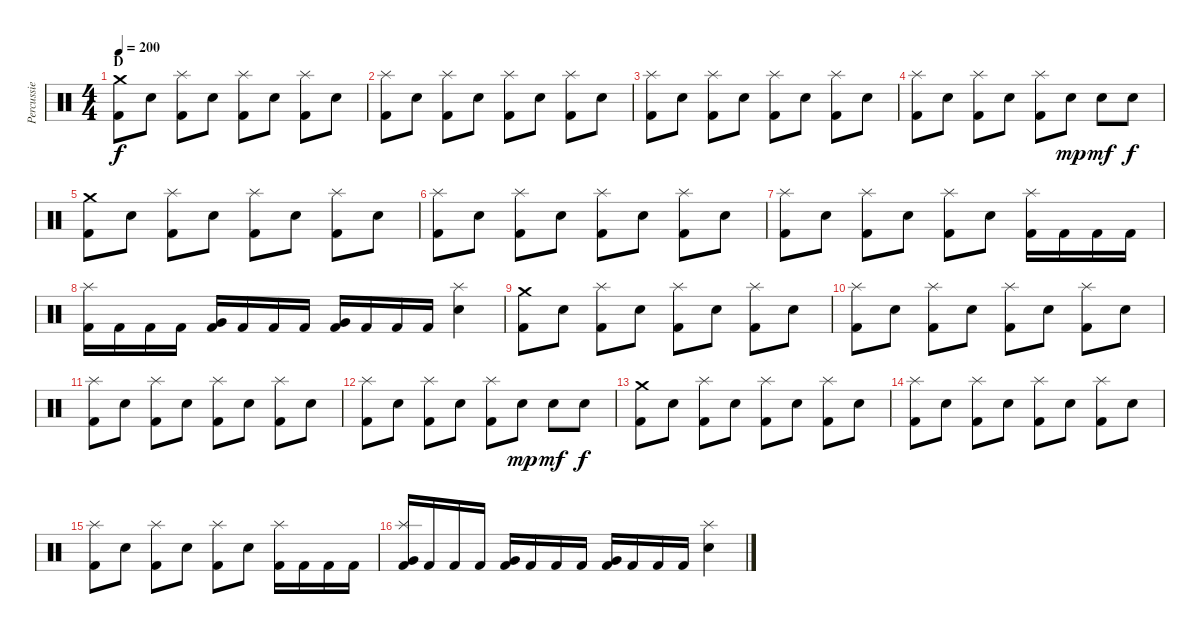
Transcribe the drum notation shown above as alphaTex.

\track ("Percussie" "Percussie") {instrument percussion}
\staff {score}
\articulation defaults
\ts (4 4)
\section ("" "D")
\tempo 200
\clef neutral
\ks c
("Crash medium (hit)" "Kick (hit) 2").8{dy f} "Electric Snare (hit)".8 ("Splash (hit)" "Kick (hit) 2").8 "Electric Snare (hit)".8 ("Splash (hit)" "Kick (hit) 2").8 "Electric Snare (hit)".8 ("Splash (hit)" "Kick (hit) 2").8 "Electric Snare (hit)".8 |
("Splash (hit)" "Kick (hit) 2").8 "Electric Snare (hit)".8 ("Splash (hit)" "Kick (hit) 2").8 "Electric Snare (hit)".8 ("Splash (hit)" "Kick (hit) 2").8 "Electric Snare (hit)".8 ("Splash (hit)" "Kick (hit) 2").8 "Electric Snare (hit)".8 |
("Splash (hit)" "Kick (hit) 2").8 "Electric Snare (hit)".8 ("Splash (hit)" "Kick (hit) 2").8 "Electric Snare (hit)".8 ("Splash (hit)" "Kick (hit) 2").8 "Electric Snare (hit)".8 ("Splash (hit)" "Kick (hit) 2").8 "Electric Snare (hit)".8 |
("Splash (hit)" "Kick (hit) 2").8 "Electric Snare (hit)".8 ("Splash (hit)" "Kick (hit) 2").8 "Electric Snare (hit)".8 ("Splash (hit)" "Kick (hit) 2").8 "Electric Snare (hit)".8{dy mp} "Electric Snare (hit)".8{dy mf} "Electric Snare (hit)".8{dy f} |
("Crash medium (hit)" "Kick (hit) 2").8 "Electric Snare (hit)".8 ("Splash (hit)" "Kick (hit) 2").8 "Electric Snare (hit)".8 ("Splash (hit)" "Kick (hit) 2").8 "Electric Snare (hit)".8 ("Splash (hit)" "Kick (hit) 2").8 "Electric Snare (hit)".8 |
("Splash (hit)" "Kick (hit) 2").8 "Electric Snare (hit)".8 ("Splash (hit)" "Kick (hit) 2").8 "Electric Snare (hit)".8 ("Splash (hit)" "Kick (hit) 2").8 "Electric Snare (hit)".8 ("Splash (hit)" "Kick (hit) 2").8 "Electric Snare (hit)".8 |
("Splash (hit)" "Kick (hit) 2").8 "Electric Snare (hit)".8 ("Splash (hit)" "Kick (hit) 2").8 "Electric Snare (hit)".8 ("Splash (hit)" "Kick (hit) 2").8 "Electric Snare (hit)".8 ("Splash (hit)" "Kick (hit) 2").16 "Kick (hit) 2".16 "Kick (hit) 2".16 "Kick (hit) 2".16 |
("Splash (hit)" "Kick (hit) 2").16 "Kick (hit) 2".16 "Kick (hit) 2".16 "Kick (hit) 2".16 ("Very Low Tom (hit)" "Kick (hit) 2").16 "Kick (hit) 2".16 "Kick (hit) 2".16 "Kick (hit) 2".16 ("Very Low Tom (hit)" "Kick (hit) 2").16 "Kick (hit) 2".16 "Kick (hit) 2".16 "Kick (hit) 2".16 ("Splash (hit)" "Electric Snare (hit)").4 |
("Crash medium (hit)" "Kick (hit) 2").8 "Electric Snare (hit)".8 ("Splash (hit)" "Kick (hit) 2").8 "Electric Snare (hit)".8 ("Splash (hit)" "Kick (hit) 2").8 "Electric Snare (hit)".8 ("Splash (hit)" "Kick (hit) 2").8 "Electric Snare (hit)".8 |
("Splash (hit)" "Kick (hit) 2").8 "Electric Snare (hit)".8 ("Splash (hit)" "Kick (hit) 2").8 "Electric Snare (hit)".8 ("Splash (hit)" "Kick (hit) 2").8 "Electric Snare (hit)".8 ("Splash (hit)" "Kick (hit) 2").8 "Electric Snare (hit)".8 |
("Splash (hit)" "Kick (hit) 2").8 "Electric Snare (hit)".8 ("Splash (hit)" "Kick (hit) 2").8 "Electric Snare (hit)".8 ("Splash (hit)" "Kick (hit) 2").8 "Electric Snare (hit)".8 ("Splash (hit)" "Kick (hit) 2").8 "Electric Snare (hit)".8 |
("Splash (hit)" "Kick (hit) 2").8 "Electric Snare (hit)".8 ("Splash (hit)" "Kick (hit) 2").8 "Electric Snare (hit)".8 ("Splash (hit)" "Kick (hit) 2").8 "Electric Snare (hit)".8{dy mp} "Electric Snare (hit)".8{dy mf} "Electric Snare (hit)".8{dy f} |
("Crash medium (hit)" "Kick (hit) 2").8 "Electric Snare (hit)".8 ("Splash (hit)" "Kick (hit) 2").8 "Electric Snare (hit)".8 ("Splash (hit)" "Kick (hit) 2").8 "Electric Snare (hit)".8 ("Splash (hit)" "Kick (hit) 2").8 "Electric Snare (hit)".8 |
("Splash (hit)" "Kick (hit) 2").8 "Electric Snare (hit)".8 ("Splash (hit)" "Kick (hit) 2").8 "Electric Snare (hit)".8 ("Splash (hit)" "Kick (hit) 2").8 "Electric Snare (hit)".8 ("Splash (hit)" "Kick (hit) 2").8 "Electric Snare (hit)".8 |
("Splash (hit)" "Kick (hit) 2").8 "Electric Snare (hit)".8 ("Splash (hit)" "Kick (hit) 2").8 "Electric Snare (hit)".8 ("Splash (hit)" "Kick (hit) 2").8 "Electric Snare (hit)".8 ("Splash (hit)" "Kick (hit) 2").16 "Kick (hit) 2".16 "Kick (hit) 2".16 "Kick (hit) 2".16 |
("Splash (hit)" "Very Low Tom (hit)" "Kick (hit) 2").16 "Kick (hit) 2".16 "Kick (hit) 2".16 "Kick (hit) 2".16 ("Very Low Tom (hit)" "Kick (hit) 2").16 "Kick (hit) 2".16 "Kick (hit) 2".16 "Kick (hit) 2".16 ("Very Low Tom (hit)" "Kick (hit) 2").16 "Kick (hit) 2".16 "Kick (hit) 2".16 "Kick (hit) 2".16 ("Splash (hit)" "Electric Snare (hit)").4
